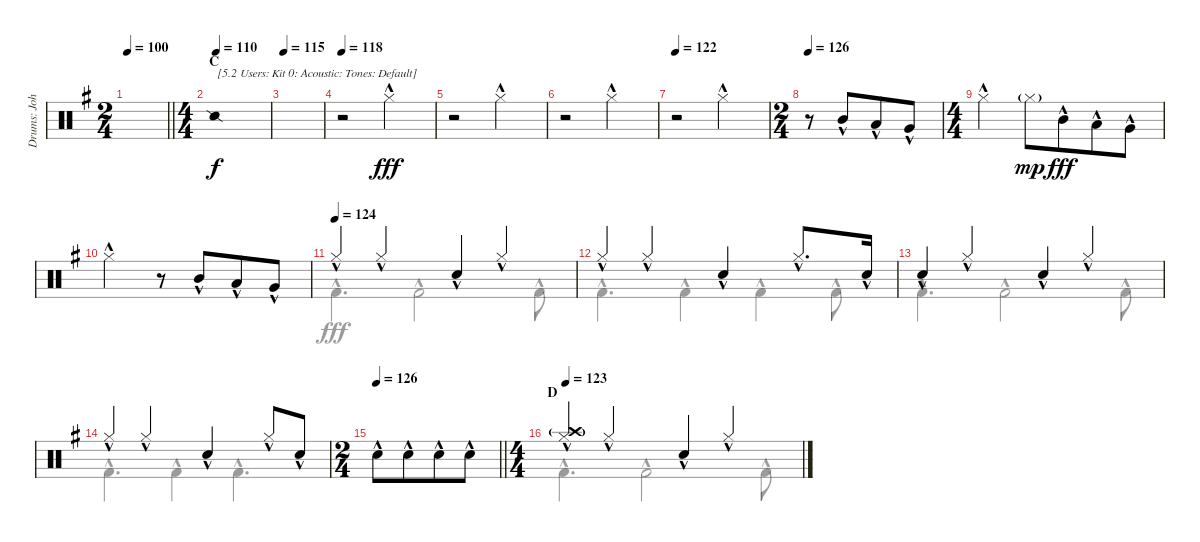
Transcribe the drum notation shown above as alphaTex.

\track ("Drums: John" "Drums: Joh") {instrument percussion}
\staff {score}
\articulation defaults
\voice
\ts (2 4)
\tempo 100
\clef neutral
\barLineRight lightlight
\ks g
|
\ts (4 4)
\section ("" "C")
\tempo (110)
"Snare (side stick) 2".1{txt "[5.2 Users: Kit 0: Acoustic: Tones: Default]"} |
\tempo 115
|
\tempo 118
r.2 "Hi-Hat (closed)"{hac}.2{dy fff} |
r.2 "Hi-Hat (closed)"{hac}.2 |
r.2 "Hi-Hat (closed)"{hac}.2 |
\tempo 122
r.2 "Hi-Hat (closed)"{hac}.2 |
\ts (2 4)
\tempo 126
r.8 "Mid Tom (hit)"{hac}.8{beam merge} "Low Tom (hit)"{hac}.8 "Very Low Tom (hit)"{hac}.8 |
\ts (4 4)
"Hi-Hat (closed)"{hac}.2 "Hi-Hat (closed)"{g}.8{dy mp} "Mid Tom (hit)"{hac}.8{dy fff beam merge} "Low Tom (hit)"{hac}.8 "Very Low Tom (hit)"{hac}.8 |
"Hi-Hat (closed)"{hac}.2 r.8 "Mid Tom (hit)"{hac}.8{beam merge} "Low Tom (hit)"{hac}.8 "Very Low Tom (hit)"{hac}.8 |
\tempo (124)
"Hi-Hat (closed)"{hac}.4 "Hi-Hat (closed)"{hac}.4{beam merge} "Electric Snare (hit)"{hac}.4 "Hi-Hat (closed)"{hac}.4 |
"Hi-Hat (closed)"{hac}.4 "Hi-Hat (closed)"{hac}.4 "Electric Snare (hit)"{hac}.4 "Hi-Hat (closed)"{hac}.8{d} "Electric Snare (hit)"{hac}.16 |
"Electric Snare (hit)"{hac}.4 "Hi-Hat (closed)"{hac}.4 "Electric Snare (hit)"{hac}.4 "Hi-Hat (closed)"{hac}.4 |
"Hi-Hat (closed)"{hac}.4 "Hi-Hat (closed)"{hac}.4 "Electric Snare (hit)"{hac}.4 "Hi-Hat (closed)"{hac}.8 "Electric Snare (hit)"{hac}.8 |
\ts (2 4)
\tempo 126
\barLineRight lightlight "Electric Snare (hit)"{hac}.8 "Electric Snare (hit)"{hac}.8{beam merge} "Electric Snare (hit)"{hac}.8 "Electric Snare (hit)"{hac}.8
|
\ts (4 4)
\section ("" "D")
\tempo 123
("Crash high (hit)"{g} "Hi-Hat (closed)"{hac}).4 "Hi-Hat (closed)"{hac}.4{beam merge} "Electric Snare (hit)"{hac}.4 "Hi-Hat (closed)"{hac}.4
\voice
\clef neutral
\ottava regular
\simile none
\barLineRight lightlight
\ks g
|
|
|
|
|
|
|
|
|
|
"Kick (hit) 2"{hac}.4{d} "Kick (hit) 2"{hac}.2 "Kick (hit) 2"{hac}.8 |
"Kick (hit) 2"{hac}.4{d} "Kick (hit) 2"{hac}.4 "Kick (hit) 2"{hac}.4 "Kick (hit) 2"{hac}.8 |
"Kick (hit) 2"{hac}.4{d} "Kick (hit) 2"{hac}.2 "Kick (hit) 2"{hac}.8 |
"Kick (hit) 2"{hac}.4{d} "Kick (hit) 2"{hac}.4 "Kick (hit) 2"{hac}.4{d} |
\barLineRight lightlight
|
"Kick (hit) 2"{hac}.4{d} "Kick (hit) 2"{hac}.2 "Kick (hit) 2"{hac}.8
